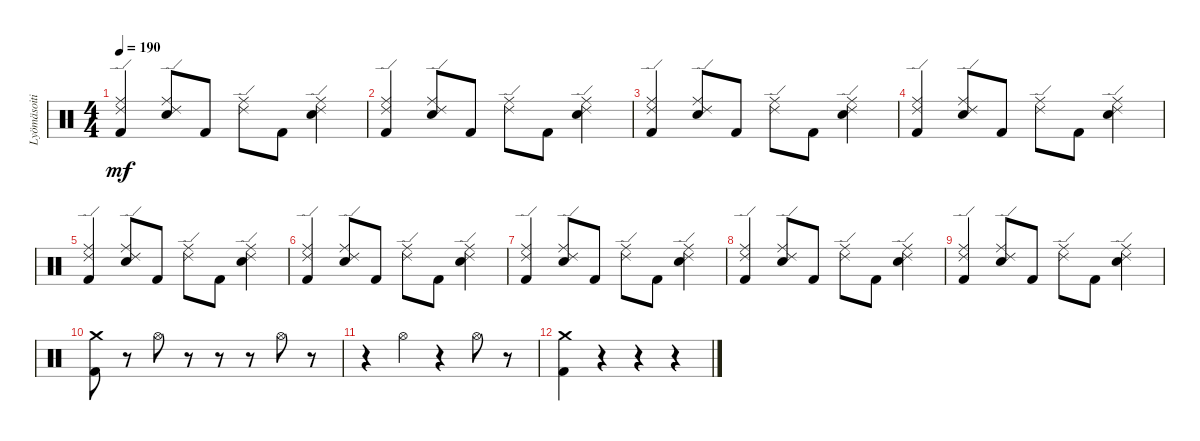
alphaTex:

\track ("Lyömäsoitin" "Lyömäsoiti") {instrument percussion}
\staff {score}
\articulation defaults
\ts (4 4)
\tempo 190
\clef neutral
\ks c
("Ride (edge) 2" "Ride (middle)" "Kick (hit) 2").4{dy mf} ("Ride (edge) 2" "Ride (middle)" "Snare (hit) 2").8 "Kick (hit) 2".8 ("Ride (edge) 2" "Ride (middle)").8 "Kick (hit) 2".8 ("Ride (edge) 2" "Ride (middle)" "Snare (hit) 2").4 |
("Ride (edge) 2" "Ride (middle)" "Kick (hit) 2").4 ("Ride (edge) 2" "Ride (middle)" "Snare (hit) 2").8 "Kick (hit) 2".8 ("Ride (edge) 2" "Ride (middle)").8 "Kick (hit) 2".8 ("Ride (edge) 2" "Ride (middle)" "Snare (hit) 2").4 |
("Ride (edge) 2" "Ride (middle)" "Kick (hit) 2").4 ("Ride (edge) 2" "Ride (middle)" "Snare (hit) 2").8 "Kick (hit) 2".8 ("Ride (edge) 2" "Ride (middle)").8 "Kick (hit) 2".8 ("Ride (edge) 2" "Ride (middle)" "Snare (hit) 2").4 |
("Ride (edge) 2" "Ride (middle)" "Kick (hit) 2").4 ("Ride (edge) 2" "Ride (middle)" "Snare (hit) 2").8 "Kick (hit) 2".8 ("Ride (edge) 2" "Ride (middle)").8 "Kick (hit) 2".8 ("Ride (edge) 2" "Ride (middle)" "Snare (hit) 2").4 |
("Ride (edge) 2" "Ride (middle)" "Kick (hit) 2").4 ("Ride (edge) 2" "Ride (middle)" "Snare (hit) 2").8 "Kick (hit) 2".8 ("Ride (edge) 2" "Ride (middle)").8 "Kick (hit) 2".8 ("Ride (edge) 2" "Ride (middle)" "Snare (hit) 2").4 |
("Ride (edge) 2" "Ride (middle)" "Kick (hit) 2").4 ("Ride (edge) 2" "Ride (middle)" "Snare (hit) 2").8 "Kick (hit) 2".8 ("Ride (edge) 2" "Ride (middle)").8 "Kick (hit) 2".8 ("Ride (edge) 2" "Ride (middle)" "Snare (hit) 2").4 |
("Ride (edge) 2" "Ride (middle)" "Kick (hit) 2").4 ("Ride (edge) 2" "Ride (middle)" "Snare (hit) 2").8 "Kick (hit) 2".8 ("Ride (edge) 2" "Ride (middle)").8 "Kick (hit) 2".8 ("Ride (edge) 2" "Ride (middle)" "Snare (hit) 2").4 |
("Ride (edge) 2" "Ride (middle)" "Kick (hit) 2").4 ("Ride (edge) 2" "Ride (middle)" "Snare (hit) 2").8 "Kick (hit) 2".8 ("Ride (edge) 2" "Ride (middle)").8 "Kick (hit) 2".8 ("Ride (edge) 2" "Ride (middle)" "Snare (hit) 2").4 |
("Ride (edge) 2" "Ride (middle)" "Kick (hit) 2").4 ("Ride (edge) 2" "Ride (middle)" "Snare (hit) 2").8 "Kick (hit) 2".8 ("Ride (edge) 2" "Ride (middle)").8 "Kick (hit) 2".8 ("Ride (edge) 2" "Ride (middle)" "Snare (hit) 2").4 |
("Crash medium (hit)" "Kick (hit) 2").8 r.8 "Hi-Hat (open)".8 r.8 r.8 r.8 "Hi-Hat (open)".8 r.8 |
r.4 "Hi-Hat (open)".4 r.4 "Hi-Hat (open)".8 r.8 |
("Crash medium (hit)" "Kick (hit) 2").4 r.4 r.4 r.4
